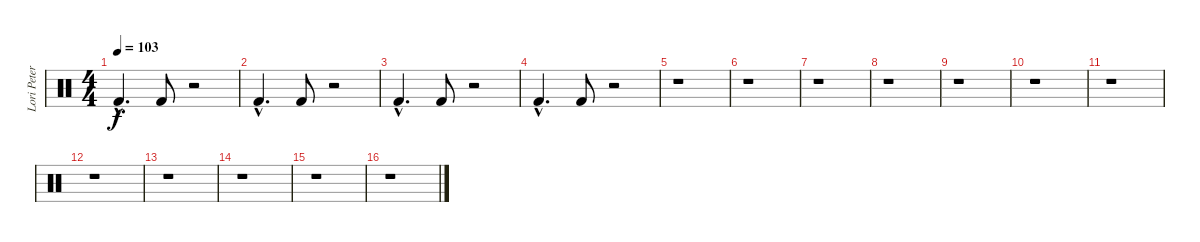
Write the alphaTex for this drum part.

\track ("Lori Peters - Drums" "Lori Peter") {instrument percussion}
\staff {score}
\articulation defaults
\ts (4 4)
\tempo 103
\clef neutral
\ks c "Kick (hit) 2"{hac}.4{d dy f} "Kick (hit) 2".8
r.2 |
"Kick (hit) 2"{hac}.4{d} "Kick (hit) 2".8 r.2 |
"Kick (hit) 2"{hac}.4{d} "Kick (hit) 2".8 r.2 |
"Kick (hit) 2"{hac}.4{d} "Kick (hit) 2".8 r.2 |
r.1 |
r.1 |
r.1 |
r.1 |
r.1 |
r.1 |
r.1 |
r.1 |
r.1 |
r.1 |
r.1 |
r.1
